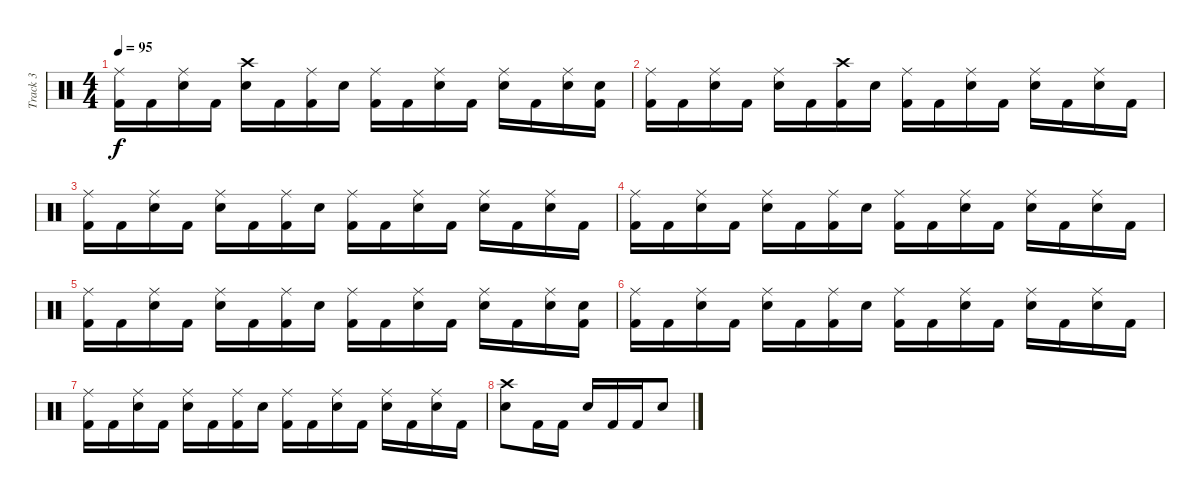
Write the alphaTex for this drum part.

\track ("Track 3" "Track 3") {instrument percussion}
\staff {score}
\articulation defaults
\ts (4 4)
\tempo 95
\clef neutral
\ks c
("Ride (middle)" "Kick (hit) 2").16{dy f} "Kick (hit) 2".16 ("Ride (middle)" "Snare (hit) 2").16 "Kick (hit) 2".16 ("Crash high (hit)" "Snare (hit) 2").16 "Kick (hit) 2".16 ("Ride (middle)" "Kick (hit) 2").16 "Snare (hit) 2".16 ("Ride (middle)" "Kick (hit) 2").16 "Kick (hit) 2".16 ("Ride (middle)" "Snare (hit) 2").16 "Kick (hit) 2".16 ("Ride (middle)" "Snare (hit) 2").16 "Kick (hit) 2".16 ("Ride (middle)" "Snare (hit) 2").16 ("Snare (hit) 2" "Kick (hit) 2").16 |
("Ride (middle)" "Kick (hit) 2").16 "Kick (hit) 2".16 ("Ride (middle)" "Snare (hit) 2").16 "Kick (hit) 2".16 ("Ride (middle)" "Snare (hit) 2").16 "Kick (hit) 2".16 ("Crash high (hit)" "Kick (hit) 2").16 "Snare (hit) 2".16 ("Ride (middle)" "Kick (hit) 2").16 "Kick (hit) 2".16 ("Ride (middle)" "Snare (hit) 2").16 "Kick (hit) 2".16 ("Ride (middle)" "Snare (hit) 2").16 "Kick (hit) 2".16 ("Ride (middle)" "Snare (hit) 2").16 "Kick (hit) 2".16 |
("Ride (middle)" "Kick (hit) 2").16 "Kick (hit) 2".16 ("Ride (middle)" "Snare (hit) 2").16 "Kick (hit) 2".16 ("Ride (middle)" "Snare (hit) 2").16 "Kick (hit) 2".16 ("Ride (middle)" "Kick (hit) 2").16 "Snare (hit) 2".16 ("Ride (middle)" "Kick (hit) 2").16 "Kick (hit) 2".16 ("Ride (middle)" "Snare (hit) 2").16 "Kick (hit) 2".16 ("Ride (middle)" "Snare (hit) 2").16 "Kick (hit) 2".16 ("Ride (middle)" "Snare (hit) 2").16 "Kick (hit) 2".16 |
("Ride (middle)" "Kick (hit) 2").16 "Kick (hit) 2".16 ("Ride (middle)" "Snare (hit) 2").16 "Kick (hit) 2".16 ("Ride (middle)" "Snare (hit) 2").16 "Kick (hit) 2".16 ("Ride (middle)" "Kick (hit) 2").16 "Snare (hit) 2".16 ("Ride (middle)" "Kick (hit) 2").16 "Kick (hit) 2".16 ("Ride (middle)" "Snare (hit) 2").16 "Kick (hit) 2".16 ("Ride (middle)" "Snare (hit) 2").16 "Kick (hit) 2".16 ("Ride (middle)" "Snare (hit) 2").16 "Kick (hit) 2".16 |
("Ride (middle)" "Kick (hit) 2").16 "Kick (hit) 2".16 ("Ride (middle)" "Snare (hit) 2").16 "Kick (hit) 2".16 ("Ride (middle)" "Snare (hit) 2").16 "Kick (hit) 2".16 ("Ride (middle)" "Kick (hit) 2").16 "Snare (hit) 2".16 ("Ride (middle)" "Kick (hit) 2").16 "Kick (hit) 2".16 ("Ride (middle)" "Snare (hit) 2").16 "Kick (hit) 2".16 ("Ride (middle)" "Snare (hit) 2").16 "Kick (hit) 2".16 ("Ride (middle)" "Snare (hit) 2").16 ("Snare (hit) 2" "Kick (hit) 2").16 |
("Ride (middle)" "Kick (hit) 2").16 "Kick (hit) 2".16 ("Ride (middle)" "Snare (hit) 2").16 "Kick (hit) 2".16 ("Ride (middle)" "Snare (hit) 2").16 "Kick (hit) 2".16 ("Ride (middle)" "Kick (hit) 2").16 "Snare (hit) 2".16 ("Ride (middle)" "Kick (hit) 2").16 "Kick (hit) 2".16 ("Ride (middle)" "Snare (hit) 2").16 "Kick (hit) 2".16 ("Ride (middle)" "Snare (hit) 2").16 "Kick (hit) 2".16 ("Ride (middle)" "Snare (hit) 2").16 "Kick (hit) 2".16 |
("Ride (middle)" "Kick (hit) 2").16 "Kick (hit) 2".16 ("Ride (middle)" "Snare (hit) 2").16 "Kick (hit) 2".16 ("Ride (middle)" "Snare (hit) 2").16 "Kick (hit) 2".16 ("Ride (middle)" "Kick (hit) 2").16 "Snare (hit) 2".16 ("Ride (middle)" "Kick (hit) 2").16 "Kick (hit) 2".16 ("Ride (middle)" "Snare (hit) 2").16 "Kick (hit) 2".16 ("Ride (middle)" "Snare (hit) 2").16 "Kick (hit) 2".16 ("Ride (middle)" "Snare (hit) 2").16 "Kick (hit) 2".16 |
("Crash high (hit)" "Snare (hit) 2").8 "Kick (hit) 2".16 "Kick (hit) 2".16 "Snare (hit) 2".16 "Kick (hit) 2".16 "Kick (hit) 2".16 "Snare (hit) 2".8
